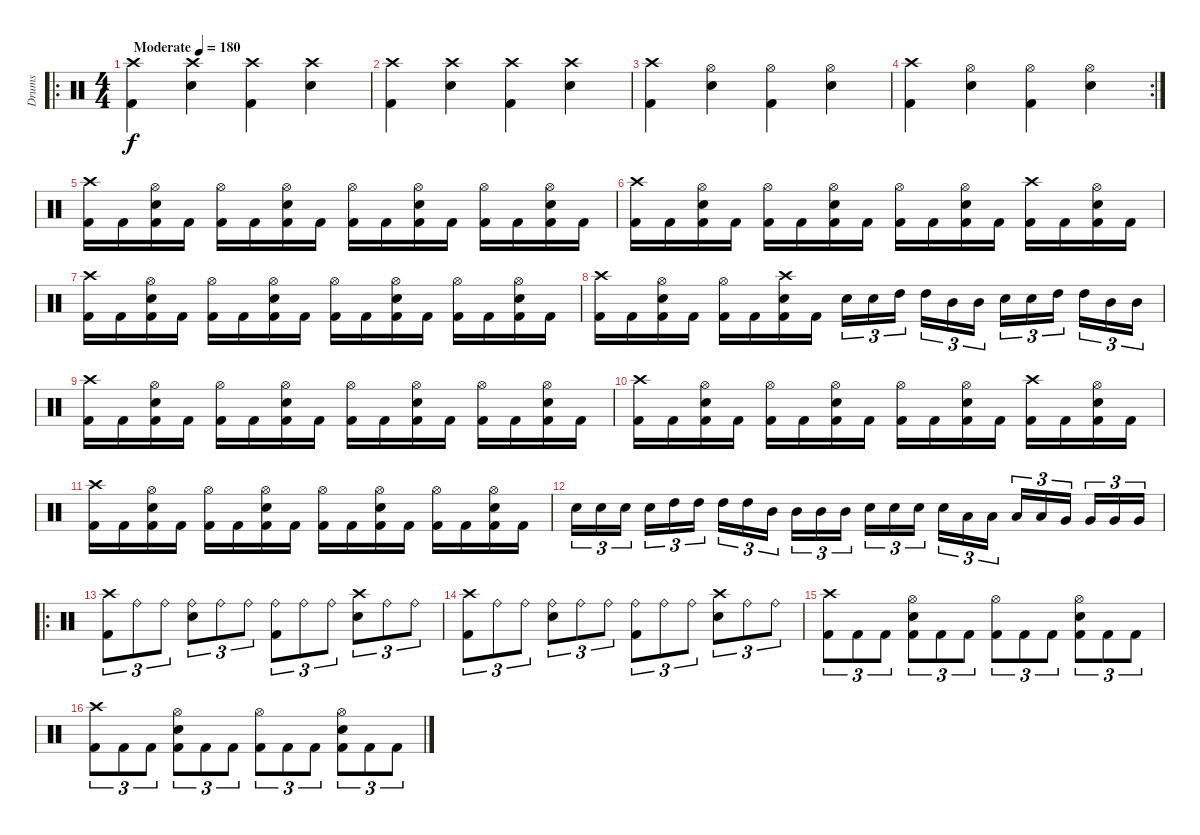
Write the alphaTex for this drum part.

\track ("Drums" "Drums") {instrument percussion}
\staff {score}
\articulation defaults
\ro
\ts (4 4)
\tempo (180 "Moderate")
\clef neutral
\ks c
("Kick (hit) 2" "Crash high (hit)").4{dy f} ("Snare (hit) 2" "Crash high (hit)").4 ("Kick (hit) 2" "Crash high (hit)").4 ("Snare (hit) 2" "Crash high (hit)").4 |
("Kick (hit) 2" "Crash high (hit)").4 ("Snare (hit) 2" "Crash high (hit)").4 ("Kick (hit) 2" "Crash high (hit)").4 ("Snare (hit) 2" "Crash high (hit)").4 |
("Kick (hit) 2" "Crash high (hit)").4 ("Snare (hit) 2" "Hi-Hat (open)").4 ("Kick (hit) 2" "Hi-Hat (open)").4 ("Snare (hit) 2" "Hi-Hat (open)").4 |
\rc 2
("Kick (hit) 2" "Crash high (hit)").4 ("Snare (hit) 2" "Hi-Hat (open)").4 ("Kick (hit) 2" "Hi-Hat (open)").4 ("Snare (hit) 2" "Hi-Hat (open)").4 |
("Kick (hit) 2" "Crash high (hit)").16 "Kick (hit) 2".16 ("Kick (hit) 2" "Snare (hit) 2" "Hi-Hat (open)").16 "Kick (hit) 2".16 ("Kick (hit) 2" "Hi-Hat (open)").16 "Kick (hit) 2".16 ("Kick (hit) 2" "Snare (hit) 2" "Hi-Hat (open)").16 "Kick (hit) 2".16 ("Kick (hit) 2" "Hi-Hat (open)").16 "Kick (hit) 2".16 ("Kick (hit) 2" "Snare (hit) 2" "Hi-Hat (open)").16 "Kick (hit) 2".16 ("Kick (hit) 2" "Hi-Hat (open)").16 "Kick (hit) 2".16 ("Kick (hit) 2" "Snare (hit) 2" "Hi-Hat (open)").16 "Kick (hit) 2".16 |
("Kick (hit) 2" "Crash high (hit)").16 "Kick (hit) 2".16 ("Kick (hit) 2" "Snare (hit) 2" "Hi-Hat (open)").16 "Kick (hit) 2".16 ("Kick (hit) 2" "Hi-Hat (open)").16 "Kick (hit) 2".16 ("Kick (hit) 2" "Snare (hit) 2" "Hi-Hat (open)").16 "Kick (hit) 2".16 ("Kick (hit) 2" "Hi-Hat (open)").16 "Kick (hit) 2".16 ("Kick (hit) 2" "Snare (hit) 2" "Hi-Hat (open)").16 "Kick (hit) 2".16 ("Kick (hit) 2" "Crash high (hit)").16 "Kick (hit) 2".16 ("Kick (hit) 2" "Snare (hit) 2" "Hi-Hat (open)").16 "Kick (hit) 2".16 |
("Kick (hit) 2" "Crash high (hit)").16 "Kick (hit) 2".16 ("Kick (hit) 2" "Snare (hit) 2" "Hi-Hat (open)").16 "Kick (hit) 2".16 ("Kick (hit) 2" "Hi-Hat (open)").16 "Kick (hit) 2".16 ("Kick (hit) 2" "Snare (hit) 2" "Hi-Hat (open)").16 "Kick (hit) 2".16 ("Kick (hit) 2" "Hi-Hat (open)").16 "Kick (hit) 2".16 ("Kick (hit) 2" "Snare (hit) 2" "Hi-Hat (open)").16 "Kick (hit) 2".16 ("Kick (hit) 2" "Hi-Hat (open)").16 "Kick (hit) 2".16 ("Kick (hit) 2" "Snare (hit) 2" "Hi-Hat (open)").16 "Kick (hit) 2".16 |
("Kick (hit) 2" "Crash high (hit)").16 "Kick (hit) 2".16 ("Kick (hit) 2" "Snare (hit) 2" "Hi-Hat (open)").16 "Kick (hit) 2".16 ("Kick (hit) 2" "Hi-Hat (open)").16 "Kick (hit) 2".16 ("Kick (hit) 2" "Snare (hit) 2" "Crash high (hit)").16 "Kick (hit) 2".16 "Snare (hit) 2".16{tu (3 2)} "Snare (hit) 2".16{tu (3 2)} "High Tom (hit)".16{tu (3 2) beam splitsecondary} "High Tom (hit)".16{tu (3 2)} "Mid Tom (hit)".16{tu (3 2)} "Mid Tom (hit)".16{tu (3 2)} "Snare (hit) 2".16{tu (3 2)} "Snare (hit) 2".16{tu (3 2)} "High Tom (hit)".16{tu (3 2) beam splitsecondary} "High Tom (hit)".16{tu (3 2)} "Mid Tom (hit)".16{tu (3 2)} "Mid Tom (hit)".16{tu (3 2)} |
("Kick (hit) 2" "Crash high (hit)").16 "Kick (hit) 2".16 ("Kick (hit) 2" "Snare (hit) 2" "Hi-Hat (open)").16 "Kick (hit) 2".16 ("Kick (hit) 2" "Hi-Hat (open)").16 "Kick (hit) 2".16 ("Kick (hit) 2" "Snare (hit) 2" "Hi-Hat (open)").16 "Kick (hit) 2".16 ("Kick (hit) 2" "Hi-Hat (open)").16 "Kick (hit) 2".16 ("Kick (hit) 2" "Snare (hit) 2" "Hi-Hat (open)").16 "Kick (hit) 2".16 ("Kick (hit) 2" "Hi-Hat (open)").16 "Kick (hit) 2".16 ("Kick (hit) 2" "Snare (hit) 2" "Hi-Hat (open)").16 "Kick (hit) 2".16 |
("Kick (hit) 2" "Crash high (hit)").16 "Kick (hit) 2".16 ("Kick (hit) 2" "Snare (hit) 2" "Hi-Hat (open)").16 "Kick (hit) 2".16 ("Kick (hit) 2" "Hi-Hat (open)").16 "Kick (hit) 2".16 ("Kick (hit) 2" "Snare (hit) 2" "Hi-Hat (open)").16 "Kick (hit) 2".16 ("Kick (hit) 2" "Hi-Hat (open)").16 "Kick (hit) 2".16 ("Kick (hit) 2" "Snare (hit) 2" "Hi-Hat (open)").16 "Kick (hit) 2".16 ("Kick (hit) 2" "Crash high (hit)").16 "Kick (hit) 2".16 ("Kick (hit) 2" "Snare (hit) 2" "Hi-Hat (open)").16 "Kick (hit) 2".16 |
("Kick (hit) 2" "Crash high (hit)").16 "Kick (hit) 2".16 ("Kick (hit) 2" "Snare (hit) 2" "Hi-Hat (open)").16 "Kick (hit) 2".16 ("Kick (hit) 2" "Hi-Hat (open)").16 "Kick (hit) 2".16 ("Kick (hit) 2" "Snare (hit) 2" "Hi-Hat (open)").16 "Kick (hit) 2".16 ("Kick (hit) 2" "Hi-Hat (open)").16 "Kick (hit) 2".16 ("Kick (hit) 2" "Snare (hit) 2" "Hi-Hat (open)").16 "Kick (hit) 2".16 ("Kick (hit) 2" "Hi-Hat (open)").16 "Kick (hit) 2".16 ("Kick (hit) 2" "Snare (hit) 2" "Hi-Hat (open)").16 "Kick (hit) 2".16 |
"Snare (hit) 2".16{tu (3 2)} "Snare (hit) 2".16{tu (3 2)} "Snare (hit) 2".16{tu (3 2) beam splitsecondary} "Snare (hit) 2".16{tu (3 2)} "High Tom (hit)".16{tu (3 2)} "High Tom (hit)".16{tu (3 2)} "High Tom (hit)".16{tu (3 2)} "High Tom (hit)".16{tu (3 2)} "Mid Tom (hit)".16{tu (3 2) beam splitsecondary} "Mid Tom (hit)".16{tu (3 2)} "Mid Tom (hit)".16{tu (3 2)} "Mid Tom (hit)".16{tu (3 2)} "Snare (hit) 2".16{tu (3 2)} "Snare (hit) 2".16{tu (3 2)} "Snare (hit) 2".16{tu (3 2) beam splitsecondary} "Snare (hit) 2".16{tu (3 2)} "Low Tom (hit)".16{tu (3 2)} "Low Tom (hit)".16{tu (3 2)} "Low Tom (hit)".16{tu (3 2)} "Low Tom (hit)".16{tu (3 2)} "Very Low Tom (hit)".16{tu (3 2) beam splitsecondary} "Very Low Tom (hit)".16{tu (3 2)} "Very Low Tom (hit)".16{tu (3 2)} "Very Low Tom (hit)".16{tu (3 2)} |
\ro
("Kick (hit) 2" "Crash high (hit)").8{tu (3 2)} "Ride (bell)".8{tu (3 2)} "Ride (bell)".8{tu (3 2)} ("Snare (hit) 2" "Ride (bell)").8{tu (3 2)} "Ride (bell)".8{tu (3 2)} "Ride (bell)".8{tu (3 2)} ("Kick (hit) 2" "Ride (bell)").8{tu (3 2)} "Ride (bell)".8{tu (3 2)} "Ride (bell)".8{tu (3 2)} ("Snare (hit) 2" "Crash high (hit)").8{tu (3 2)} "Ride (bell)".8{tu (3 2)} "Ride (bell)".8{tu (3 2)} |
("Kick (hit) 2" "Crash high (hit)").8{tu (3 2)} "Ride (bell)".8{tu (3 2)} "Ride (bell)".8{tu (3 2)} ("Snare (hit) 2" "Ride (bell)").8{tu (3 2)} "Ride (bell)".8{tu (3 2)} "Ride (bell)".8{tu (3 2)} ("Kick (hit) 2" "Ride (bell)").8{tu (3 2)} "Ride (bell)".8{tu (3 2)} "Ride (bell)".8{tu (3 2)} ("Snare (hit) 2" "Crash high (hit)").8{tu (3 2)} "Ride (bell)".8{tu (3 2)} "Ride (bell)".8{tu (3 2)} |
("Kick (hit) 2" "Crash high (hit)").8{tu (3 2)} "Kick (hit) 2".8{tu (3 2)} "Kick (hit) 2".8{tu (3 2)} ("Kick (hit) 2" "Snare (hit) 2" "Hi-Hat (open)").8{tu (3 2)} "Kick (hit) 2".8{tu (3 2)} "Kick (hit) 2".8{tu (3 2)} ("Kick (hit) 2" "Hi-Hat (open)").8{tu (3 2)} "Kick (hit) 2".8{tu (3 2)} "Kick (hit) 2".8{tu (3 2)} ("Kick (hit) 2" "Snare (hit) 2" "Hi-Hat (open)").8{tu (3 2)} "Kick (hit) 2".8{tu (3 2)} "Kick (hit) 2".8{tu (3 2)} |
("Kick (hit) 2" "Crash high (hit)").8{tu (3 2)} "Kick (hit) 2".8{tu (3 2)} "Kick (hit) 2".8{tu (3 2)} ("Kick (hit) 2" "Snare (hit) 2" "Hi-Hat (open)").8{tu (3 2)} "Kick (hit) 2".8{tu (3 2)} "Kick (hit) 2".8{tu (3 2)} ("Kick (hit) 2" "Hi-Hat (open)").8{tu (3 2)} "Kick (hit) 2".8{tu (3 2)} "Kick (hit) 2".8{tu (3 2)} ("Kick (hit) 2" "Snare (hit) 2" "Hi-Hat (open)").8{tu (3 2)} "Kick (hit) 2".8{tu (3 2)} "Kick (hit) 2".8{tu (3 2)}
